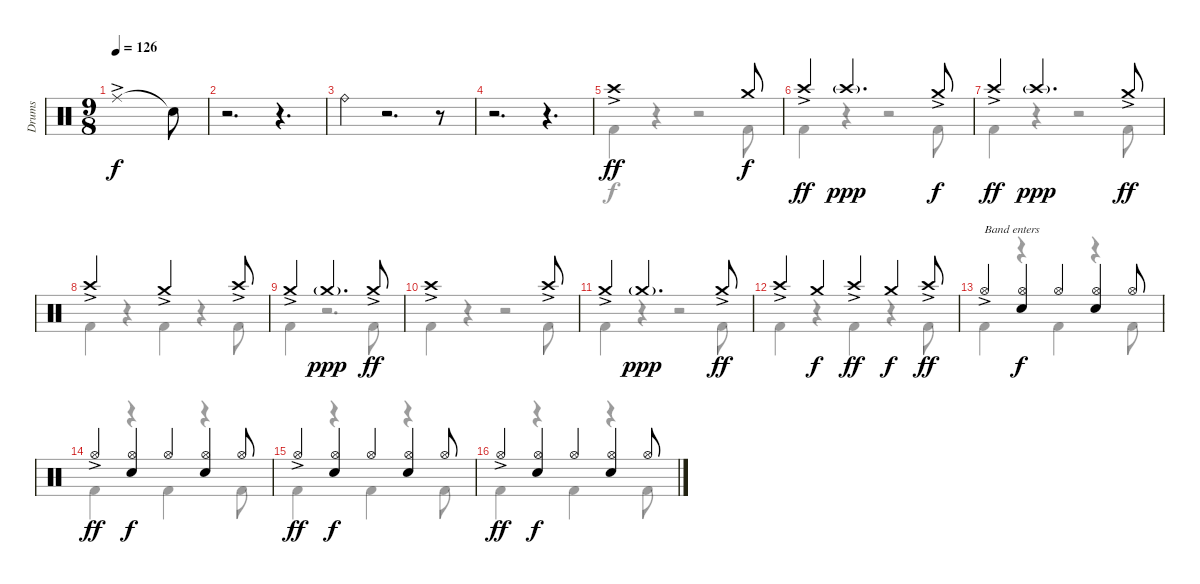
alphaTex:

\track ("Drums" "Drums") {instrument percussion}
\staff {score}
\articulation defaults
\voice
\ts (9 8)
\tempo 126
\clef neutral
\ks c "Ride (middle)"{ac}.1{dy f} "Snare (hit)"{t}.8
|
r.2{d} r.4{d} |
"Ride (bell)".4 r.2{d} r.8 |
r.2{d} r.4{d} |
"Crash high (hit)"{ac}.1{dy ff} "Crash medium (hit)".8{dy f} |
"Crash high (hit)"{ac}.4{dy ff} "Crash high (hit)"{g}.2{d dy ppp} "Crash medium (hit)"{ac}.8{dy f} |
"Crash high (hit)"{ac}.4{dy ff} "Crash high (hit)"{g}.2{d dy ppp} "Crash medium (hit)"{ac}.8{dy ff} |
"Crash high (hit)"{ac}.2 "Crash medium (hit)"{ac}.2 "Crash high (hit)"{ac}.8 |
"Crash medium (hit)"{ac}.4 "Crash medium (hit)"{g}.2{d dy ppp} "Crash medium (hit)"{ac}.8{dy ff} |
"Crash high (hit)"{ac}.1 "Crash high (hit)"{ac}.8 |
"Crash medium (hit)"{ac}.4 "Crash medium (hit)"{g}.2{d dy ppp} "Crash medium (hit)"{ac}.8{dy ff} |
"Crash high (hit)"{ac}.4 "Crash medium (hit)".4{dy f} "Crash high (hit)"{ac}.4{dy ff} "Crash medium (hit)".4{dy f} "Crash high (hit)"{ac}.8{dy ff} |
"Hi-Hat (open)"{ac}.4{txt "Band enters"} ("Hi-Hat (open)" "Electric Snare (hit)").4{dy f} "Hi-Hat (open)".4 ("Hi-Hat (open)" "Electric Snare (hit)").4 "Hi-Hat (open)".8 |
"Hi-Hat (open)"{ac}.4{dy ff} ("Hi-Hat (open)" "Electric Snare (hit)").4{dy f} "Hi-Hat (open)".4 ("Hi-Hat (open)" "Electric Snare (hit)").4 "Hi-Hat (open)".8 |
"Hi-Hat (open)"{ac}.4{dy ff} ("Hi-Hat (open)" "Electric Snare (hit)").4{dy f} "Hi-Hat (open)".4 ("Hi-Hat (open)" "Electric Snare (hit)").4 "Hi-Hat (open)".8 |
"Hi-Hat (open)"{ac}.4{dy ff} ("Hi-Hat (open)" "Electric Snare (hit)").4{dy f} "Hi-Hat (open)".4 ("Hi-Hat (open)" "Electric Snare (hit)").4 "Hi-Hat (open)".8
\voice
\clef neutral
\ottava regular
\simile none
\ks c
|
|
|
|
"Kick (hit) 2".4 r.4 r.2 "Kick (hit) 2".8 |
"Kick (hit) 2".4 r.4 r.2 "Kick (hit) 2".8 |
"Kick (hit) 2".4 r.4 r.2 "Kick (hit) 2".8 |
"Kick (hit) 2".4 r.4 "Kick (hit) 2".4 r.4 "Kick (hit) 2".8 |
"Kick (hit) 2".4 r.2{d} "Kick (hit) 2".8 |
"Kick (hit) 2".4 r.4 r.2 "Kick (hit) 2".8 |
"Kick (hit) 2".4 r.4 r.2 "Kick (hit) 2".8 |
"Kick (hit) 2".4 r.4 "Kick (hit) 2".4 r.4 "Kick (hit) 2".8 |
"Kick (hit) 2".4 r.4 "Kick (hit) 2".4 r.4 "Kick (hit) 2".8 |
"Kick (hit) 2".4 r.4 "Kick (hit) 2".4 r.4 "Kick (hit) 2".8 |
"Kick (hit) 2".4 r.4 "Kick (hit) 2".4 r.4 "Kick (hit) 2".8 |
"Kick (hit) 2".4 r.4 "Kick (hit) 2".4 r.4 "Kick (hit) 2".8
